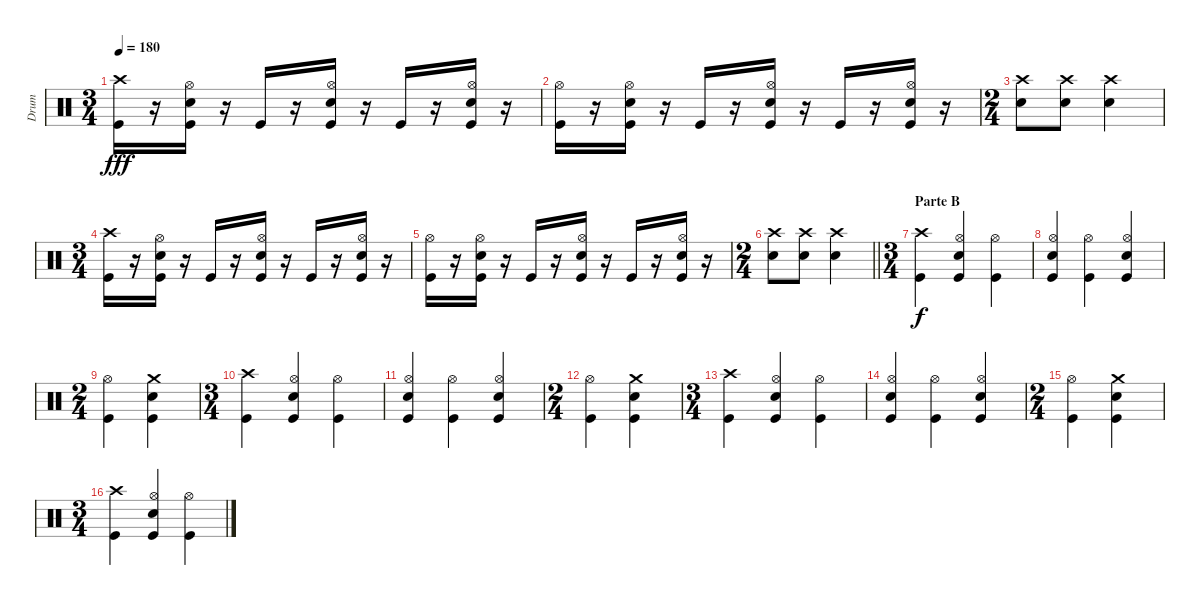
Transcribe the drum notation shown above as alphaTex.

\track ("Drum" "Drum") {instrument percussion}
\staff {score}
\articulation defaults
\ts (3 4)
\tempo 180
\clef neutral
\ks c
("Crash high (hit)" "Kick (hit)").16{dy fff} r.16 ("Hi-Hat (open)" "Snare (hit) 2" "Kick (hit)").16 r.16 "Kick (hit)".16 r.16 ("Hi-Hat (open)" "Snare (hit) 2" "Kick (hit)").16 r.16 "Kick (hit)".16 r.16 ("Hi-Hat (open)" "Snare (hit) 2" "Kick (hit)").16 r.16 |
("Hi-Hat (open)" "Kick (hit)").16 r.16 ("Hi-Hat (open)" "Snare (hit) 2" "Kick (hit)").16 r.16 "Kick (hit)".16 r.16 ("Hi-Hat (open)" "Snare (hit) 2" "Kick (hit)").16 r.16 "Kick (hit)".16 r.16 ("Hi-Hat (open)" "Snare (hit) 2" "Kick (hit)").16 r.16 |
\ts (2 4)
("Crash high (hit)" "Snare (hit) 2").8 ("Crash high (hit)" "Snare (hit) 2").8 ("Crash high (hit)" "Snare (hit) 2").4 |
\ts (3 4)
("Crash high (hit)" "Kick (hit)").16 r.16 ("Hi-Hat (open)" "Snare (hit) 2" "Kick (hit)").16 r.16 "Kick (hit)".16 r.16 ("Hi-Hat (open)" "Snare (hit) 2" "Kick (hit)").16 r.16 "Kick (hit)".16 r.16 ("Hi-Hat (open)" "Snare (hit) 2" "Kick (hit)").16 r.16 |
("Hi-Hat (open)" "Kick (hit)").16 r.16 ("Hi-Hat (open)" "Snare (hit) 2" "Kick (hit)").16 r.16 "Kick (hit)".16 r.16 ("Hi-Hat (open)" "Snare (hit) 2" "Kick (hit)").16 r.16 "Kick (hit)".16 r.16 ("Hi-Hat (open)" "Snare (hit) 2" "Kick (hit)").16 r.16 |
\ts (2 4)
\barLineRight lightlight
("Crash high (hit)" "Snare (hit) 2").8 ("Crash high (hit)" "Snare (hit) 2").8 ("Crash high (hit)" "Snare (hit) 2").4 |
\ts (3 4)
\section ("" "Parte B")
("Crash high (hit)" "Kick (hit)").4{dy f} ("Hi-Hat (open)" "Snare (hit) 2" "Kick (hit)").4 ("Hi-Hat (open)" "Kick (hit)").4 |
("Hi-Hat (open)" "Snare (hit) 2" "Kick (hit)").4 ("Hi-Hat (open)" "Kick (hit)").4 ("Hi-Hat (open)" "Snare (hit) 2" "Kick (hit)").4 |
\ts (2 4)
("Hi-Hat (open)" "Kick (hit)").4 ("Crash medium (hit)" "Snare (hit) 2" "Kick (hit)").4 |
\ts (3 4)
("Crash high (hit)" "Kick (hit)").4 ("Hi-Hat (open)" "Snare (hit) 2" "Kick (hit)").4 ("Hi-Hat (open)" "Kick (hit)").4 |
("Hi-Hat (open)" "Snare (hit) 2" "Kick (hit)").4 ("Hi-Hat (open)" "Kick (hit)").4 ("Hi-Hat (open)" "Snare (hit) 2" "Kick (hit)").4 |
\ts (2 4)
("Hi-Hat (open)" "Kick (hit)").4 ("Crash medium (hit)" "Snare (hit) 2" "Kick (hit)").4 |
\ts (3 4)
("Crash high (hit)" "Kick (hit)").4 ("Hi-Hat (open)" "Snare (hit) 2" "Kick (hit)").4 ("Hi-Hat (open)" "Kick (hit)").4 |
("Hi-Hat (open)" "Snare (hit) 2" "Kick (hit)").4 ("Hi-Hat (open)" "Kick (hit)").4 ("Hi-Hat (open)" "Snare (hit) 2" "Kick (hit)").4 |
\ts (2 4)
("Hi-Hat (open)" "Kick (hit)").4 ("Crash medium (hit)" "Snare (hit) 2" "Kick (hit)").4 |
\ts (3 4)
("Crash high (hit)" "Kick (hit)").4 ("Hi-Hat (open)" "Snare (hit) 2" "Kick (hit)").4 ("Hi-Hat (open)" "Kick (hit)").4
